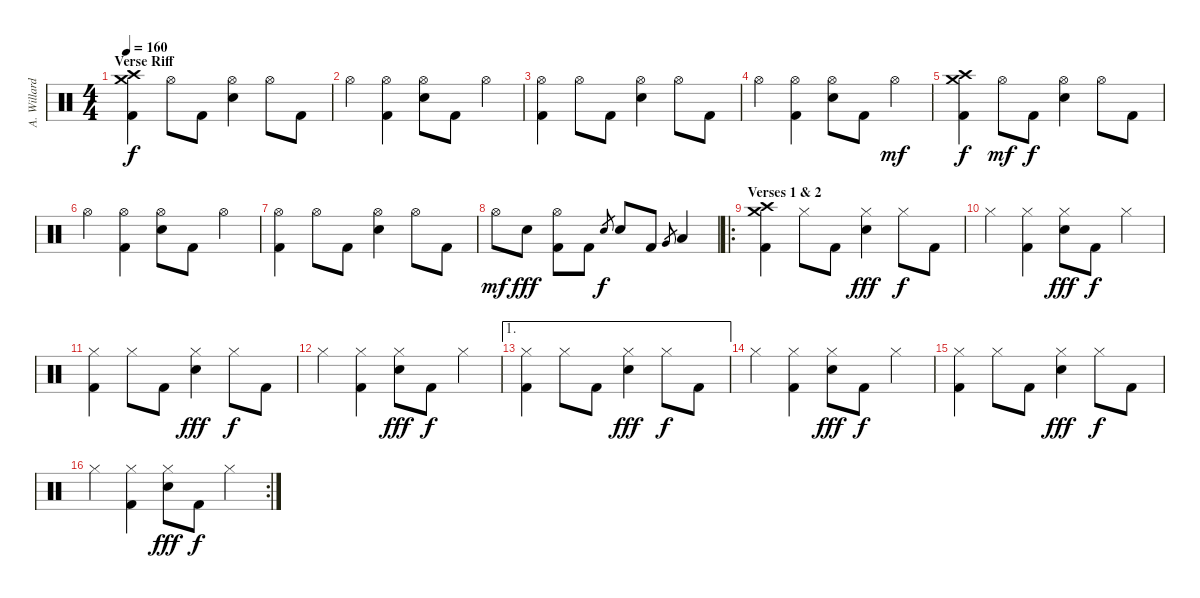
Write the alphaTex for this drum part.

\track ("A. Willard (Drums)" "A. Willard") {instrument percussion}
\staff {score}
\articulation defaults
\ts (4 4)
\section ("" "Verse Riff")
\tempo 160
\clef neutral
\ks c
("Crash high (hit)" "Kick (hit) 2" "Crash medium (hit)").4{dy f} "Hi-Hat (open)".8 "Kick (hit) 2".8 ("Hi-Hat (open)" "Electric Snare (hit)").4 "Hi-Hat (open)".8 "Kick (hit) 2".8 |
"Hi-Hat (open)".4 ("Hi-Hat (open)" "Kick (hit) 2").4 ("Hi-Hat (open)" "Electric Snare (hit)").8 "Kick (hit) 2".8 "Hi-Hat (open)".4 |
("Hi-Hat (open)" "Kick (hit) 2").4 "Hi-Hat (open)".8 "Kick (hit) 2".8 ("Hi-Hat (open)" "Electric Snare (hit)").4 "Hi-Hat (open)".8 "Kick (hit) 2".8 |
"Hi-Hat (open)".4 ("Hi-Hat (open)" "Kick (hit) 2").4 ("Hi-Hat (open)" "Electric Snare (hit)").8 "Kick (hit) 2".8 "Hi-Hat (open)".4{dy mf} |
("Crash high (hit)" "Kick (hit) 2" "Crash medium (hit)").4{dy f} "Hi-Hat (open)".8{dy mf} "Kick (hit) 2".8{dy f} ("Hi-Hat (open)" "Electric Snare (hit)").4 "Hi-Hat (open)".8 "Kick (hit) 2".8 |
"Hi-Hat (open)".4 ("Hi-Hat (open)" "Kick (hit) 2").4 ("Hi-Hat (open)" "Electric Snare (hit)").8 "Kick (hit) 2".8 "Hi-Hat (open)".4 |
("Hi-Hat (open)" "Kick (hit) 2").4 "Hi-Hat (open)".8 "Kick (hit) 2".8 ("Hi-Hat (open)" "Electric Snare (hit)").4 "Hi-Hat (open)".8 "Kick (hit) 2".8 |
"Hi-Hat (open)".8{dy mf} "Electric Snare (hit)".8{dy fff} ("Hi-Hat (open)" "Kick (hit) 2").8 "Kick (hit) 2".8 "Electric Snare (hit)".8{gr dy f} "Electric Snare (hit)".8 "Kick (hit) 2".8 "Very Low Tom (hit)".8{gr} "Low Tom (hit)".4 |
\ro
\section ("" "Verses 1 & 2")
("Crash high (hit)" "Kick (hit) 2" "Crash medium (hit)").4 "Hi-Hat (closed)".8 "Kick (hit) 2".8 ("Hi-Hat (closed)" "Electric Snare (hit)").4{dy fff} "Hi-Hat (closed)".8{dy f} "Kick (hit) 2".8 |
"Hi-Hat (closed)".4 ("Hi-Hat (closed)" "Kick (hit) 2").4 ("Hi-Hat (closed)" "Electric Snare (hit)").8{dy fff} "Kick (hit) 2".8{dy f} "Hi-Hat (closed)".4 |
("Hi-Hat (closed)" "Kick (hit) 2").4 "Hi-Hat (closed)".8 "Kick (hit) 2".8 ("Hi-Hat (closed)" "Electric Snare (hit)").4{dy fff} "Hi-Hat (closed)".8{dy f} "Kick (hit) 2".8 |
"Hi-Hat (closed)".4 ("Hi-Hat (closed)" "Kick (hit) 2").4 ("Hi-Hat (closed)" "Electric Snare (hit)").8{dy fff} "Kick (hit) 2".8{dy f} "Hi-Hat (closed)".4 |
\ae 1
("Hi-Hat (closed)" "Kick (hit) 2").4 "Hi-Hat (closed)".8 "Kick (hit) 2".8 ("Hi-Hat (closed)" "Electric Snare (hit)").4{dy fff} "Hi-Hat (closed)".8{dy f} "Kick (hit) 2".8 |
"Hi-Hat (closed)".4 ("Hi-Hat (closed)" "Kick (hit) 2").4 ("Hi-Hat (closed)" "Electric Snare (hit)").8{dy fff} "Kick (hit) 2".8{dy f} "Hi-Hat (closed)".4 |
("Hi-Hat (closed)" "Kick (hit) 2").4 "Hi-Hat (closed)".8 "Kick (hit) 2".8 ("Hi-Hat (closed)" "Electric Snare (hit)").4{dy fff} "Hi-Hat (closed)".8{dy f} "Kick (hit) 2".8 |
\rc 2 "Hi-Hat (closed)".4
("Hi-Hat (closed)" "Kick (hit) 2").4 ("Hi-Hat (closed)" "Electric Snare (hit)").8{dy fff} "Kick (hit) 2".8{dy f} "Hi-Hat (closed)".4
